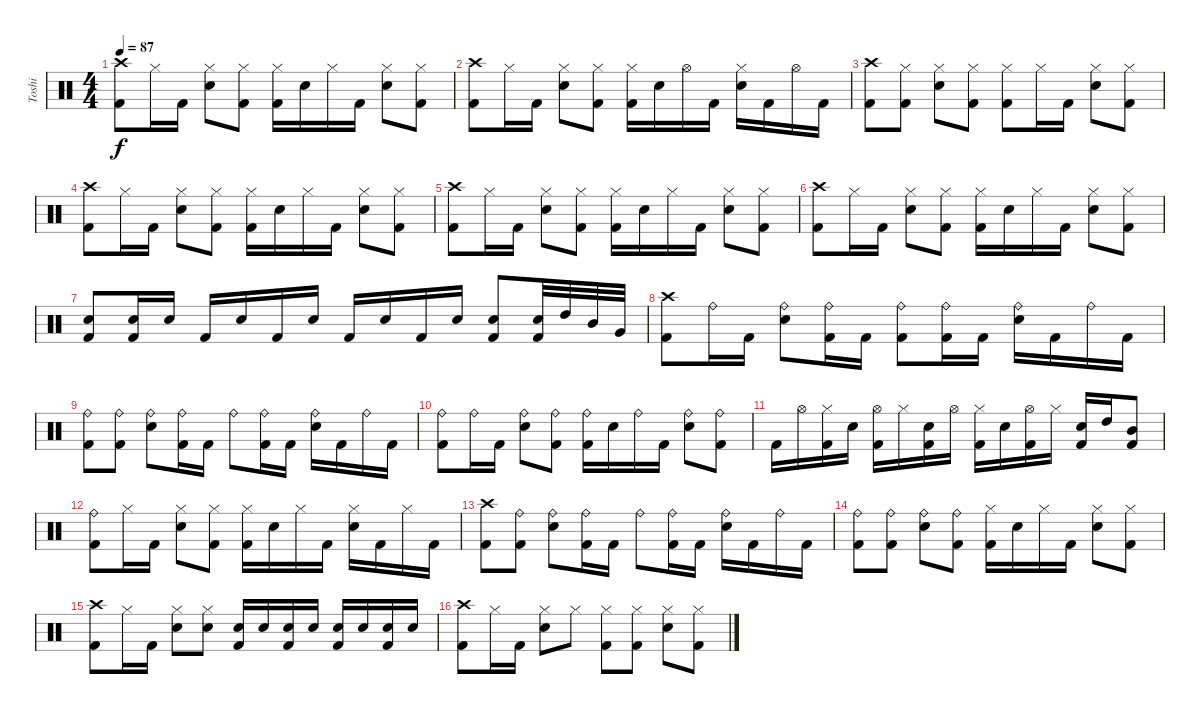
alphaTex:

\track ("Toshi" "Toshi") {instrument percussion}
\staff {score}
\articulation defaults
\ts (4 4)
\tempo 87
\clef neutral
\ks c
("Crash high (hit)" "Kick (hit) 2").8{dy f} "Hi-Hat (closed)".16 "Kick (hit) 2".16 ("Hi-Hat (closed)" "Snare (hit) 2").8 ("Hi-Hat (closed)" "Kick (hit) 2").8 ("Hi-Hat (closed)" "Kick (hit) 2").16 "Snare (hit) 2".16 "Hi-Hat (closed)".16 "Kick (hit) 2".16 ("Hi-Hat (closed)" "Snare (hit) 2").8 ("Hi-Hat (closed)" "Kick (hit) 2").8 |
("Crash high (hit)" "Kick (hit) 2").8 "Hi-Hat (closed)".16 "Kick (hit) 2".16 ("Hi-Hat (closed)" "Snare (hit) 2").8 ("Hi-Hat (closed)" "Kick (hit) 2").8 ("Hi-Hat (closed)" "Kick (hit) 2").16 "Snare (hit) 2".16 "Hi-Hat (open)".16 "Kick (hit) 2".16 ("Hi-Hat (closed)" "Snare (hit) 2").16 "Kick (hit) 2".16 "Hi-Hat (open)".16 "Kick (hit) 2".16 |
("Crash high (hit)" "Kick (hit) 2").8 ("Hi-Hat (closed)" "Kick (hit) 2").8 ("Hi-Hat (closed)" "Snare (hit) 2").8 ("Hi-Hat (closed)" "Kick (hit) 2").8 ("Hi-Hat (closed)" "Kick (hit) 2").8 "Hi-Hat (closed)".16 "Kick (hit) 2".16 ("Hi-Hat (closed)" "Snare (hit) 2").8 ("Hi-Hat (closed)" "Kick (hit) 2").8 |
("Crash high (hit)" "Kick (hit) 2").8 "Hi-Hat (closed)".16 "Kick (hit) 2".16 ("Hi-Hat (closed)" "Snare (hit) 2").8 ("Hi-Hat (closed)" "Kick (hit) 2").8 ("Hi-Hat (closed)" "Kick (hit) 2").16 "Snare (hit) 2".16 "Hi-Hat (closed)".16 "Kick (hit) 2".16 ("Hi-Hat (closed)" "Snare (hit) 2").8 ("Hi-Hat (closed)" "Kick (hit) 2").8 |
("Crash high (hit)" "Kick (hit) 2").8 "Hi-Hat (closed)".16 "Kick (hit) 2".16 ("Hi-Hat (closed)" "Snare (hit) 2").8 ("Hi-Hat (closed)" "Kick (hit) 2").8 ("Hi-Hat (closed)" "Kick (hit) 2").16 "Snare (hit) 2".16 "Hi-Hat (closed)".16 "Kick (hit) 2".16 ("Hi-Hat (closed)" "Snare (hit) 2").8 ("Hi-Hat (closed)" "Kick (hit) 2").8 |
("Crash high (hit)" "Kick (hit) 2").8 "Hi-Hat (closed)".16 "Kick (hit) 2".16 ("Hi-Hat (closed)" "Snare (hit) 2").8 ("Hi-Hat (closed)" "Kick (hit) 2").8 ("Hi-Hat (closed)" "Kick (hit) 2").16 "Snare (hit) 2".16 "Hi-Hat (closed)".16 "Kick (hit) 2".16 ("Hi-Hat (closed)" "Snare (hit) 2").8 ("Hi-Hat (closed)" "Kick (hit) 2").8 |
("Snare (hit) 2" "Kick (hit) 2").8 ("Snare (hit) 2" "Kick (hit) 2").16 "Snare (hit) 2".16 "Kick (hit) 2".16 "Snare (hit) 2".16 "Kick (hit) 2".16 "Snare (hit) 2".16 "Kick (hit) 2".16 "Snare (hit) 2".16 "Kick (hit) 2".16 "Snare (hit) 2".16 ("Snare (hit) 2" "Kick (hit) 2").8 ("Snare (hit) 2" "Kick (hit) 2").32 "High Tom (hit)".32 "Mid Tom (hit)".32 "Very Low Tom (hit)".32 |
("Crash high (hit)" "Kick (hit) 2").8 "Ride (bell)".16 "Kick (hit) 2".16 ("Ride (bell)" "Snare (hit) 2").8 ("Ride (bell)" "Kick (hit) 2").16 "Kick (hit) 2".16 ("Ride (bell)" "Kick (hit) 2").8 ("Ride (bell)" "Kick (hit) 2").16 "Kick (hit) 2".16 ("Ride (bell)" "Snare (hit) 2").16 "Kick (hit) 2".16 "Ride (bell)".16 "Kick (hit) 2".16 |
("Ride (bell)" "Kick (hit) 2").8 ("Ride (bell)" "Kick (hit) 2").8 ("Ride (bell)" "Snare (hit) 2").8 ("Ride (bell)" "Kick (hit) 2").16 "Kick (hit) 2".16 "Ride (bell)".8 ("Ride (bell)" "Kick (hit) 2").16 "Kick (hit) 2".16 ("Ride (bell)" "Snare (hit) 2").16 "Kick (hit) 2".16 "Ride (bell)".16 "Kick (hit) 2".16 |
("Ride (bell)" "Kick (hit) 2").8 "Ride (bell)".16 "Kick (hit) 2".16 ("Ride (bell)" "Snare (hit) 2").8 ("Ride (bell)" "Kick (hit) 2").8 ("Ride (bell)" "Kick (hit) 2").16 "Snare (hit) 2".16 "Ride (bell)".16 "Kick (hit) 2".16 ("Ride (bell)" "Snare (hit) 2").8 ("Ride (bell)" "Kick (hit) 2").8 |
"Kick (hit) 2".16 "Hi-Hat (open)".16 ("Hi-Hat (closed)" "Kick (hit) 2").16 "Snare (hit) 2".16 ("Hi-Hat (open)" "Kick (hit) 2").16 "Hi-Hat (closed)".16 ("Snare (hit) 2" "Kick (hit) 2").16 "Hi-Hat (open)".16 ("Hi-Hat (closed)" "Kick (hit) 2").16 "Snare (hit) 2".16 ("Hi-Hat (open)" "Kick (hit) 2").16 "Hi-Hat (closed)".16 ("Snare (hit) 2" "Kick (hit) 2").16 "High Tom (hit)".16 ("Mid Tom (hit)" "Kick (hit) 2").8 |
("Ride (bell)" "Kick (hit) 2").8 "Hi-Hat (closed)".16 "Kick (hit) 2".16 ("Hi-Hat (closed)" "Snare (hit) 2").8 ("Hi-Hat (closed)" "Kick (hit) 2").8 ("Hi-Hat (closed)" "Kick (hit) 2").16 "Snare (hit) 2".16 "Hi-Hat (closed)".16 "Kick (hit) 2".16 ("Hi-Hat (closed)" "Snare (hit) 2").16 "Kick (hit) 2".16 "Hi-Hat (closed)".16 "Kick (hit) 2".16 |
("Crash high (hit)" "Kick (hit) 2").8 ("Ride (bell)" "Kick (hit) 2").8 ("Ride (bell)" "Snare (hit) 2").8 ("Ride (bell)" "Kick (hit) 2").16 "Kick (hit) 2".16 "Ride (bell)".8 ("Ride (bell)" "Kick (hit) 2").16 "Kick (hit) 2".16 ("Ride (bell)" "Snare (hit) 2").16 "Kick (hit) 2".16 "Ride (bell)".16 "Kick (hit) 2".16 |
("Ride (bell)" "Kick (hit) 2").8 ("Ride (bell)" "Kick (hit) 2").8 ("Ride (bell)" "Snare (hit) 2").8 ("Ride (bell)" "Kick (hit) 2").8 ("Hi-Hat (closed)" "Kick (hit) 2").16 "Snare (hit) 2".16 "Hi-Hat (closed)".16 "Kick (hit) 2".16 ("Hi-Hat (closed)" "Snare (hit) 2").8 ("Hi-Hat (closed)" "Kick (hit) 2").8 |
("Crash high (hit)" "Kick (hit) 2").8 "Hi-Hat (closed)".16 "Kick (hit) 2".16 ("Hi-Hat (closed)" "Snare (hit) 2").8 ("Hi-Hat (closed)" "Snare (hit) 2").8 ("Snare (hit) 2" "Kick (hit) 2").16 "Snare (hit) 2".16 ("Snare (hit) 2" "Kick (hit) 2").16 "Snare (hit) 2".16 ("Snare (hit) 2" "Kick (hit) 2").16 "Snare (hit) 2".16 ("Snare (hit) 2" "Kick (hit) 2").16 "Snare (hit) 2".16 |
("Crash high (hit)" "Kick (hit) 2").8 "Hi-Hat (closed)".16 "Kick (hit) 2".16 ("Hi-Hat (closed)" "Snare (hit) 2").8 "Hi-Hat (closed)".8 ("Hi-Hat (closed)" "Kick (hit) 2").8 ("Hi-Hat (closed)" "Kick (hit) 2").8 ("Hi-Hat (closed)" "Snare (hit) 2").8 ("Hi-Hat (closed)" "Kick (hit) 2").8
